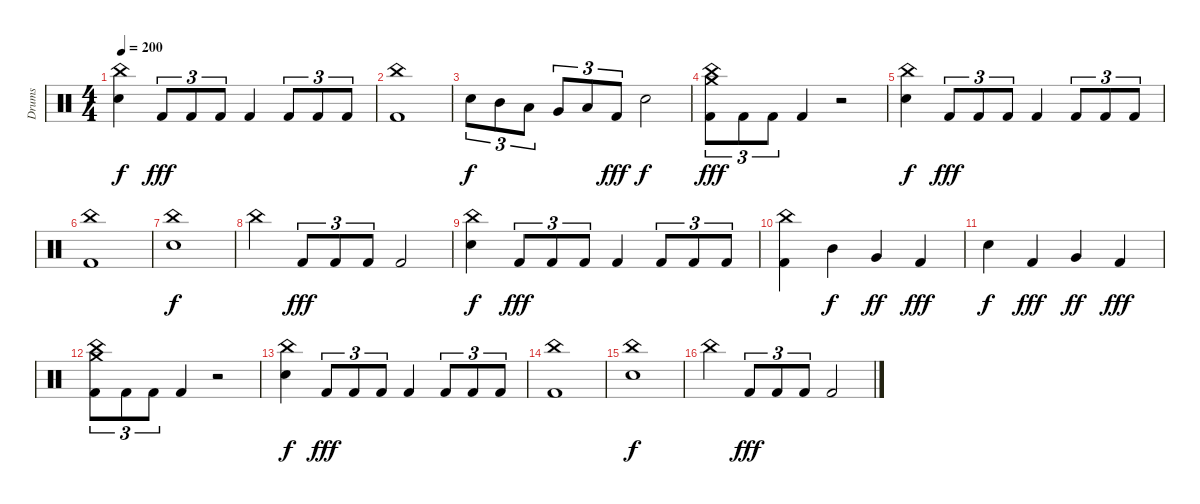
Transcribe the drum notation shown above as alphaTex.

\track ("Drums" "Drums") {instrument percussion}
\staff {score}
\articulation defaults
\ts (4 4)
\tempo 200
\clef neutral
\ks c
("China (hit)" "Snare (hit) 2").4{dy f} "Kick (hit) 2".8{tu (3 2) dy fff} "Kick (hit) 2".8{tu (3 2)} "Kick (hit) 2".8{tu (3 2)} "Kick (hit) 2".4 "Kick (hit) 2".8{tu (3 2)} "Kick (hit) 2".8{tu (3 2)} "Kick (hit) 2".8{tu (3 2)} |
("China (hit)" "Kick (hit) 2").1 |
"Snare (hit) 2".8{tu (3 2) dy f} "Mid Tom (hit)".8{tu (3 2)} "Low Tom (hit)".8{tu (3 2)} "Very Low Tom (hit)".8{tu (3 2)} "Low Floor Tom (hit)".8{tu (3 2)} "Kick (hit) 2".8{tu (3 2) dy fff} "Snare (hit) 2".2{dy f} |
("Crash medium (hit)" "China (hit)" "Kick (hit) 2").8{tu (3 2) dy fff} "Kick (hit) 2".8{tu (3 2)} "Kick (hit) 2".8{tu (3 2)} "Kick (hit) 2".4 r.2 |
("China (hit)" "Snare (hit) 2").4{dy f} "Kick (hit) 2".8{tu (3 2) dy fff} "Kick (hit) 2".8{tu (3 2)} "Kick (hit) 2".8{tu (3 2)} "Kick (hit) 2".4 "Kick (hit) 2".8{tu (3 2)} "Kick (hit) 2".8{tu (3 2)} "Kick (hit) 2".8{tu (3 2)} |
("China (hit)" "Kick (hit) 2").1 |
("China (hit)" "Snare (hit) 2").1{dy f} |
"China (hit)".4 "Kick (hit) 2".8{tu (3 2) dy fff} "Kick (hit) 2".8{tu (3 2)} "Kick (hit) 2".8{tu (3 2)} "Kick (hit) 2".2 |
("China (hit)" "Snare (hit) 2").4{dy f} "Kick (hit) 2".8{tu (3 2) dy fff} "Kick (hit) 2".8{tu (3 2)} "Kick (hit) 2".8{tu (3 2)} "Kick (hit) 2".4 "Kick (hit) 2".8{tu (3 2)} "Kick (hit) 2".8{tu (3 2)} "Kick (hit) 2".8{tu (3 2)} |
("China (hit)" "Kick (hit) 2").4 "Mid Tom (hit)".4{dy f} "Very Low Tom (hit)".4{dy ff} "Kick (hit) 2".4{dy fff} |
"Snare (hit) 2".4{dy f} "Kick (hit) 2".4{dy fff} "Very Low Tom (hit)".4{dy ff} "Kick (hit) 2".4{dy fff} |
("Crash medium (hit)" "China (hit)" "Kick (hit) 2").8{tu (3 2)} "Kick (hit) 2".8{tu (3 2)} "Kick (hit) 2".8{tu (3 2)} "Kick (hit) 2".4 r.2 |
("China (hit)" "Snare (hit) 2").4{dy f} "Kick (hit) 2".8{tu (3 2) dy fff} "Kick (hit) 2".8{tu (3 2)} "Kick (hit) 2".8{tu (3 2)} "Kick (hit) 2".4 "Kick (hit) 2".8{tu (3 2)} "Kick (hit) 2".8{tu (3 2)} "Kick (hit) 2".8{tu (3 2)} |
("China (hit)" "Kick (hit) 2").1 |
("China (hit)" "Snare (hit) 2").1{dy f} |
"China (hit)".4 "Kick (hit) 2".8{tu (3 2) dy fff} "Kick (hit) 2".8{tu (3 2)} "Kick (hit) 2".8{tu (3 2)} "Kick (hit) 2".2
